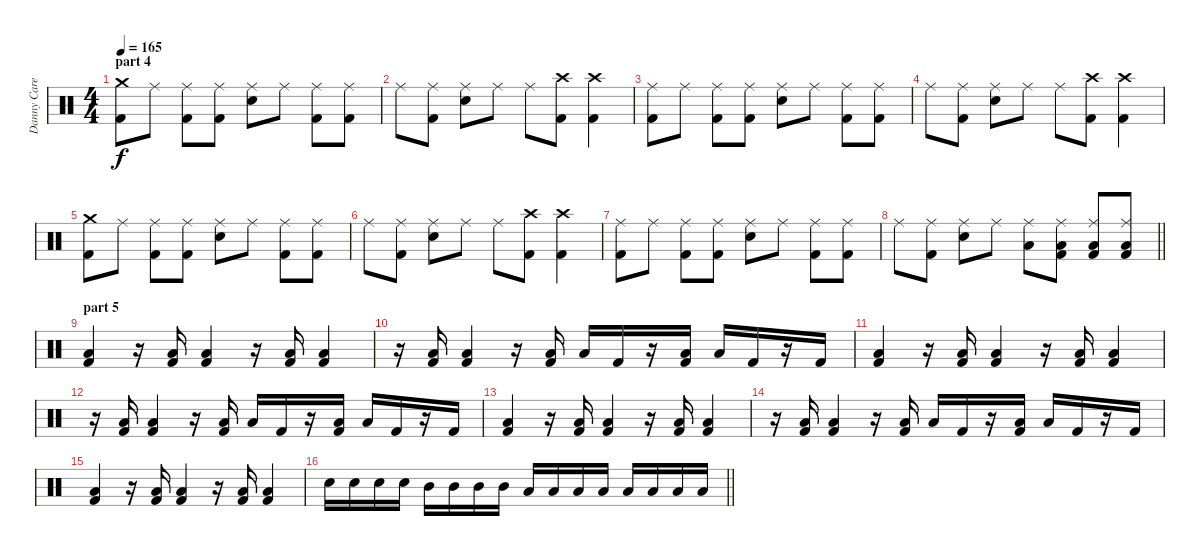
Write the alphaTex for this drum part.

\track ("Danny Carey / drums" "Danny Care") {instrument percussion}
\staff {score}
\articulation defaults
\ts (4 4)
\section ("" "part 4")
\tempo 165
\clef neutral
\ks c
("Crash medium (hit)" "Kick (hit) 2").8{dy f} "Ride (middle)".8 ("Ride (middle)" "Kick (hit) 2").8 ("Ride (middle)" "Kick (hit) 2").8 ("Ride (middle)" "Electric Snare (hit)").8 "Ride (middle)".8 ("Ride (middle)" "Kick (hit) 2").8 ("Ride (middle)" "Kick (hit) 2").8 |
"Ride (middle)".8 ("Ride (middle)" "Kick (hit) 2").8 ("Ride (middle)" "Electric Snare (hit)").8 "Ride (middle)".8 "Ride (middle)".8 ("Crash high (hit)" "Kick (hit) 2").8 ("Crash high (hit)" "Kick (hit) 2").4 |
("Ride (middle)" "Kick (hit) 2").8 "Ride (middle)".8 ("Ride (middle)" "Kick (hit) 2").8 ("Ride (middle)" "Kick (hit) 2").8 ("Ride (middle)" "Electric Snare (hit)").8 "Ride (middle)".8 ("Ride (middle)" "Kick (hit) 2").8 ("Ride (middle)" "Kick (hit) 2").8 |
"Ride (middle)".8 ("Ride (middle)" "Kick (hit) 2").8 ("Ride (middle)" "Electric Snare (hit)").8 "Ride (middle)".8 "Ride (middle)".8 ("Crash high (hit)" "Kick (hit) 2").8 ("Crash high (hit)" "Kick (hit) 2").4 |
("Crash medium (hit)" "Kick (hit) 2").8 "Ride (middle)".8 ("Ride (middle)" "Kick (hit) 2").8 ("Ride (middle)" "Kick (hit) 2").8 ("Ride (middle)" "Electric Snare (hit)").8 "Ride (middle)".8 ("Ride (middle)" "Kick (hit) 2").8 ("Ride (middle)" "Kick (hit) 2").8 |
"Ride (middle)".8 ("Ride (middle)" "Kick (hit) 2").8 ("Ride (middle)" "Electric Snare (hit)").8 "Ride (middle)".8 "Ride (middle)".8 ("Crash high (hit)" "Kick (hit) 2").8 ("Crash high (hit)" "Kick (hit) 2").4 |
("Ride (middle)" "Kick (hit) 2").8 "Ride (middle)".8 ("Ride (middle)" "Kick (hit) 2").8 ("Ride (middle)" "Kick (hit) 2").8 ("Ride (middle)" "Electric Snare (hit)").8 "Ride (middle)".8 ("Ride (middle)" "Kick (hit) 2").8 ("Ride (middle)" "Kick (hit) 2").8 |
\barLineRight lightlight "Ride (middle)".8
("Ride (middle)" "Kick (hit) 2").8 ("Ride (middle)" "Electric Snare (hit)").8 "Ride (middle)".8 ("Ride (middle)" "Low Floor Tom (hit)").8 ("Ride (middle)" "Low Floor Tom (hit)" "Kick (hit) 2").8 ("Ride (middle)" "Low Floor Tom (hit)" "Kick (hit) 2").8 ("Ride (middle)" "Low Floor Tom (hit)" "Kick (hit) 2").8 |
\section ("" "part 5")
("Low Tom (hit)" "Kick (hit) 2").4 r.16 ("Low Floor Tom (hit)" "Kick (hit) 2").16 ("Low Tom (hit)" "Kick (hit) 2").4 r.16 ("Low Floor Tom (hit)" "Kick (hit) 2").16 ("Low Tom (hit)" "Kick (hit) 2").4 |
r.16 ("Low Floor Tom (hit)" "Kick (hit) 2").16 ("Low Tom (hit)" "Kick (hit) 2").4 r.16 ("Low Floor Tom (hit)" "Kick (hit) 2").16 "Low Tom (hit)".16 "Kick (hit) 2".16 r.16 ("Low Floor Tom (hit)" "Kick (hit) 2").16 "Low Tom (hit)".16 "Kick (hit) 2".16 r.16 "Kick (hit) 2".16 |
("Low Tom (hit)" "Kick (hit) 2").4 r.16 ("Low Floor Tom (hit)" "Kick (hit) 2").16 ("Low Tom (hit)" "Kick (hit) 2").4 r.16 ("Low Floor Tom (hit)" "Kick (hit) 2").16 ("Low Tom (hit)" "Kick (hit) 2").4 |
r.16 ("Low Floor Tom (hit)" "Kick (hit) 2").16 ("Low Tom (hit)" "Kick (hit) 2").4 r.16 ("Low Floor Tom (hit)" "Kick (hit) 2").16 "Low Tom (hit)".16 "Kick (hit) 2".16 r.16 ("Low Floor Tom (hit)" "Kick (hit) 2").16 "Low Tom (hit)".16 "Kick (hit) 2".16 r.16 "Kick (hit) 2".16 |
("Low Tom (hit)" "Kick (hit) 2").4 r.16 ("Low Floor Tom (hit)" "Kick (hit) 2").16 ("Low Tom (hit)" "Kick (hit) 2").4 r.16 ("Low Floor Tom (hit)" "Kick (hit) 2").16 ("Low Tom (hit)" "Kick (hit) 2").4 |
r.16 ("Low Floor Tom (hit)" "Kick (hit) 2").16 ("Low Tom (hit)" "Kick (hit) 2").4 r.16 ("Low Floor Tom (hit)" "Kick (hit) 2").16 "Low Tom (hit)".16 "Kick (hit) 2".16 r.16 ("Low Floor Tom (hit)" "Kick (hit) 2").16 "Low Tom (hit)".16 "Kick (hit) 2".16 r.16 "Kick (hit) 2".16 |
("Low Tom (hit)" "Kick (hit) 2").4 r.16 ("Low Floor Tom (hit)" "Kick (hit) 2").16 ("Low Tom (hit)" "Kick (hit) 2").4 r.16 ("Low Floor Tom (hit)" "Kick (hit) 2").16 ("Low Tom (hit)" "Kick (hit) 2").4 |
\barLineRight lightlight "Electric Snare (hit)".16 "Electric Snare (hit)".16 "Electric Snare (hit)".16 "Electric Snare (hit)".16 "Mid Tom (hit)".16 "Mid Tom (hit)".16 "Mid Tom (hit)".16 "Mid Tom (hit)".16 "Low Tom (hit)".16 "Low Tom (hit)".16 "Low Tom (hit)".16 "Low Tom (hit)".16 "Low Floor Tom (hit)".16 "Low Floor Tom (hit)".16 "Low Floor Tom (hit)".16 "Low Floor Tom (hit)".16
